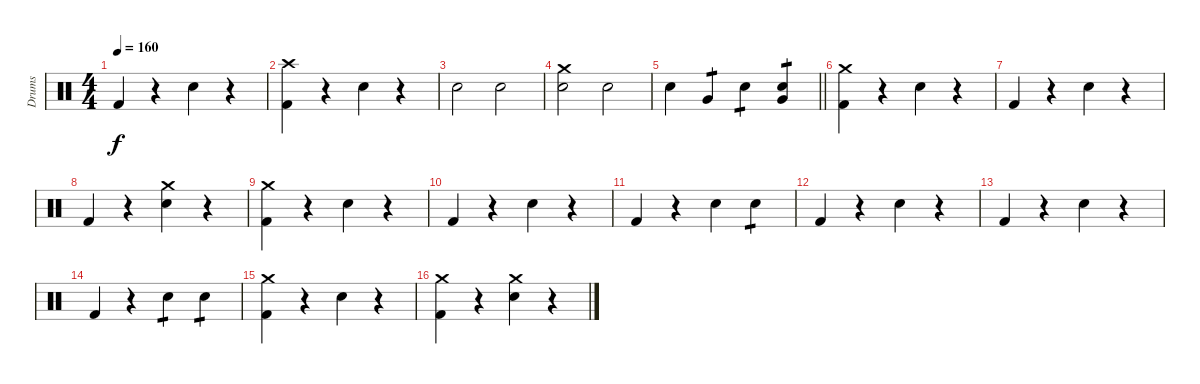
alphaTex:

\track ("Drums" "Drums") {instrument percussion}
\staff {score}
\articulation defaults
\ts (4 4)
\tempo 160
\clef neutral
\ks c "Kick (hit) 2".4{dy f}
r.4 "Snare (hit) 2".4 r.4 |
("Kick (hit) 2" "Crash high (hit)").4 r.4 "Snare (hit) 2".4 r.4 |
"Snare (hit) 2".2 "Snare (hit) 2".2 |
("Snare (hit) 2" "Crash medium (hit)").2 "Snare (hit) 2".2 |
\barLineRight lightlight "Snare (hit) 2".4 "Very Low Tom (hit)".4{tp 1} "Snare (hit) 2".4{tp 1}
("Very Low Tom (hit)" "Snare (hit) 2").4{tp 1} |
("Kick (hit) 2" "Crash medium (hit)").4 r.4 "Snare (hit) 2".4 r.4 |
"Kick (hit) 2".4 r.4 "Snare (hit) 2".4 r.4 |
"Kick (hit) 2".4 r.4 ("Snare (hit) 2" "Crash medium (hit)").4 r.4 |
("Kick (hit) 2" "Crash medium (hit)").4 r.4 "Snare (hit) 2".4 r.4 |
"Kick (hit) 2".4 r.4 "Snare (hit) 2".4 r.4 |
"Kick (hit) 2".4 r.4 "Snare (hit) 2".4 "Snare (hit) 2".4{tp 1} |
"Kick (hit) 2".4 r.4 "Snare (hit) 2".4 r.4 |
"Kick (hit) 2".4 r.4 "Snare (hit) 2".4 r.4 |
"Kick (hit) 2".4 r.4 "Snare (hit) 2".4{tp 1} "Snare (hit) 2".4{tp 1} |
("Kick (hit) 2" "Crash medium (hit)").4 r.4 "Snare (hit) 2".4 r.4 |
("Kick (hit) 2" "Crash medium (hit)").4 r.4 ("Snare (hit) 2" "Crash medium (hit)").4 r.4
